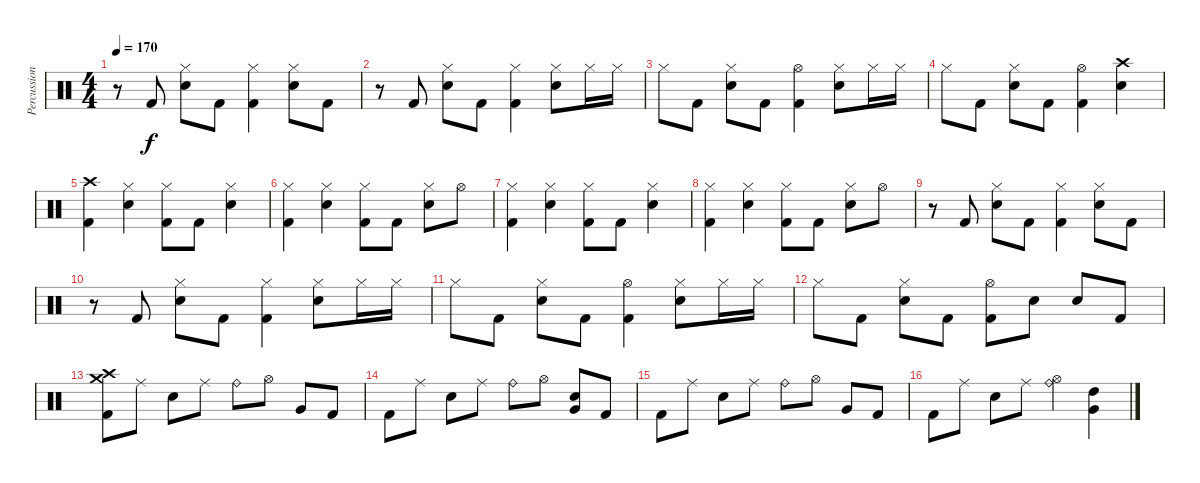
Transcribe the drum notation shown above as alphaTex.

\track ("Percussion" "Percussion") {instrument percussion}
\staff {score}
\articulation defaults
\ts (4 4)
\tempo 170
\clef neutral
\ks c
r.8{dy f} "Kick (hit) 2".8 ("Hi-Hat (closed)" "Snare (hit) 2").8 "Kick (hit) 2".8 ("Hi-Hat (closed)" "Kick (hit) 2").4 ("Hi-Hat (closed)" "Snare (hit) 2").8 "Kick (hit) 2".8 |
r.8 "Kick (hit) 2".8 ("Hi-Hat (closed)" "Snare (hit) 2").8 "Kick (hit) 2".8 ("Hi-Hat (closed)" "Kick (hit) 2").4 ("Hi-Hat (closed)" "Snare (hit) 2").8 "Hi-Hat (closed)".16 "Hi-Hat (closed)".16 |
"Hi-Hat (closed)".8 "Kick (hit) 2".8 ("Hi-Hat (closed)" "Snare (hit) 2").8 "Kick (hit) 2".8 ("Hi-Hat (open)" "Kick (hit) 2").4 ("Hi-Hat (closed)" "Snare (hit) 2").8 "Hi-Hat (closed)".16 "Hi-Hat (closed)".16 |
"Hi-Hat (closed)".8 "Kick (hit) 2".8 ("Hi-Hat (closed)" "Snare (hit) 2").8 "Kick (hit) 2".8 ("Hi-Hat (open)" "Kick (hit) 2").4 ("Crash high (hit)" "Snare (hit) 2").4 |
("Crash high (hit)" "Kick (hit) 2").4 ("Hi-Hat (closed)" "Snare (hit) 2").4 ("Hi-Hat (closed)" "Kick (hit) 2").8 "Kick (hit) 2".8 ("Hi-Hat (closed)" "Snare (hit) 2").4 |
("Hi-Hat (closed)" "Kick (hit) 2").4 ("Hi-Hat (closed)" "Snare (hit) 2").4 ("Hi-Hat (closed)" "Kick (hit) 2").8 "Kick (hit) 2".8 ("Hi-Hat (closed)" "Snare (hit) 2").8 "Hi-Hat (open)".8 |
("Hi-Hat (closed)" "Kick (hit) 2").4 ("Hi-Hat (closed)" "Snare (hit) 2").4 ("Hi-Hat (closed)" "Kick (hit) 2").8 "Kick (hit) 2".8 ("Hi-Hat (closed)" "Snare (hit) 2").4 |
("Hi-Hat (closed)" "Kick (hit) 2").4 ("Hi-Hat (closed)" "Snare (hit) 2").4 ("Hi-Hat (closed)" "Kick (hit) 2").8 "Kick (hit) 2".8 ("Hi-Hat (closed)" "Snare (hit) 2").8 "Hi-Hat (open)".8 |
r.8 "Kick (hit) 2".8 ("Hi-Hat (closed)" "Snare (hit) 2").8 "Kick (hit) 2".8 ("Hi-Hat (closed)" "Kick (hit) 2").4 ("Hi-Hat (closed)" "Snare (hit) 2").8 "Kick (hit) 2".8 |
r.8 "Kick (hit) 2".8 ("Hi-Hat (closed)" "Snare (hit) 2").8 "Kick (hit) 2".8 ("Hi-Hat (closed)" "Kick (hit) 2").4 ("Hi-Hat (closed)" "Snare (hit) 2").8 "Hi-Hat (closed)".16 "Hi-Hat (closed)".16 |
"Hi-Hat (closed)".8 "Kick (hit) 2".8 ("Hi-Hat (closed)" "Snare (hit) 2").8 "Kick (hit) 2".8 ("Hi-Hat (open)" "Kick (hit) 2").4 ("Hi-Hat (closed)" "Snare (hit) 2").8 "Hi-Hat (closed)".16 "Hi-Hat (closed)".16 |
"Hi-Hat (closed)".8 "Kick (hit) 2".8 ("Hi-Hat (closed)" "Snare (hit) 2").8 "Kick (hit) 2".8 ("Hi-Hat (open)" "Kick (hit) 2").8 "Snare (hit) 2".8 "Snare (hit) 2".8 "Kick (hit) 2".8 |
("Crash medium (hit)" "Crash high (hit)" "Kick (hit) 2").8 "Ride (middle)".8 "Snare (hit) 2".8 "Ride (middle)".8 "Ride (bell)".8 "Hi-Hat (open)".8 "Very Low Tom (hit)".8 "Kick (hit) 2".8 |
"Kick (hit) 2".8 "Ride (middle)".8 "Snare (hit) 2".8 "Ride (middle)".8 "Ride (bell)".8 "Hi-Hat (open)".8 ("Very Low Tom (hit)" "Snare (hit) 2").8 "Kick (hit) 2".8 |
"Kick (hit) 2".8 "Ride (middle)".8 "Snare (hit) 2".8 "Ride (middle)".8 "Ride (bell)".8 "Hi-Hat (open)".8 "Very Low Tom (hit)".8 "Kick (hit) 2".8 |
"Kick (hit) 2".8 "Ride (middle)".8 "Snare (hit) 2".8 "Ride (middle)".8 ("Ride (bell)" "Hi-Hat (open)").4 ("Very Low Tom (hit)" "High Tom (hit)").4
